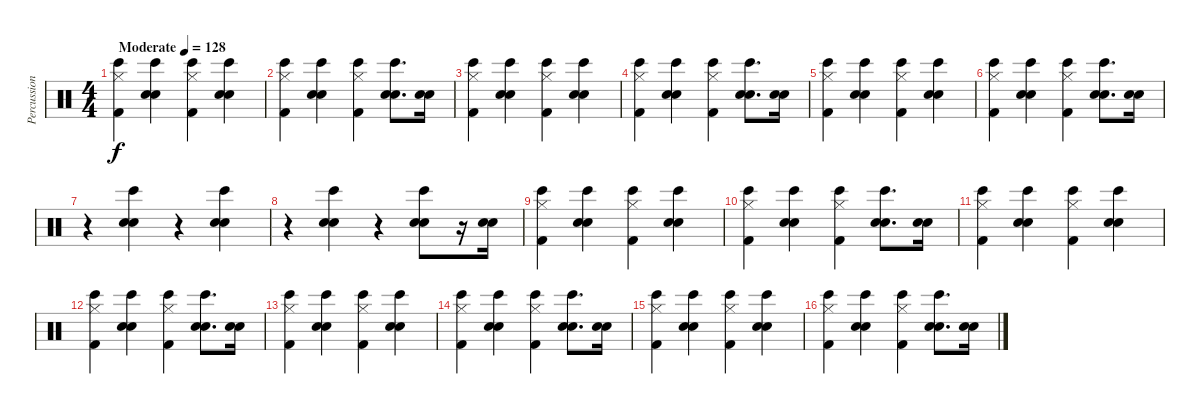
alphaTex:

\track ("Percussion" "Percussion") {instrument percussion}
\staff {score}
\articulation defaults
\ts (4 4)
\tempo (128 "Moderate")
\clef neutral
\ks c
("Hi-Hat (closed)" "Bongo High (hit)" "Kick (hit) 2").4{dy f} ("Bongo High (hit)" "Hand Clap (hit)" "Electric Snare (hit)").4 ("Hi-Hat (closed)" "Bongo High (hit)" "Kick (hit) 2").4 ("Bongo High (hit)" "Hand Clap (hit)" "Electric Snare (hit)").4 |
("Hi-Hat (closed)" "Bongo High (hit)" "Kick (hit) 2").4 ("Bongo High (hit)" "Hand Clap (hit)" "Electric Snare (hit)").4 ("Hi-Hat (closed)" "Bongo High (hit)" "Kick (hit) 2").4 ("Bongo High (hit)" "Hand Clap (hit)" "Electric Snare (hit)").8{d} ("Hand Clap (hit)" "Electric Snare (hit)").16 |
("Hi-Hat (closed)" "Bongo High (hit)" "Kick (hit) 2").4 ("Bongo High (hit)" "Hand Clap (hit)" "Electric Snare (hit)").4 ("Hi-Hat (closed)" "Bongo High (hit)" "Kick (hit) 2").4 ("Bongo High (hit)" "Hand Clap (hit)" "Electric Snare (hit)").4 |
("Hi-Hat (closed)" "Bongo High (hit)" "Kick (hit) 2").4 ("Bongo High (hit)" "Hand Clap (hit)" "Electric Snare (hit)").4 ("Hi-Hat (closed)" "Bongo High (hit)" "Kick (hit) 2").4 ("Bongo High (hit)" "Hand Clap (hit)" "Electric Snare (hit)").8{d} ("Hand Clap (hit)" "Electric Snare (hit)").16 |
("Hi-Hat (closed)" "Bongo High (hit)" "Kick (hit) 2").4 ("Bongo High (hit)" "Hand Clap (hit)" "Electric Snare (hit)").4 ("Hi-Hat (closed)" "Bongo High (hit)" "Kick (hit) 2").4 ("Bongo High (hit)" "Hand Clap (hit)" "Electric Snare (hit)").4 |
("Hi-Hat (closed)" "Bongo High (hit)" "Kick (hit) 2").4 ("Bongo High (hit)" "Hand Clap (hit)" "Electric Snare (hit)").4 ("Hi-Hat (closed)" "Bongo High (hit)" "Kick (hit) 2").4 ("Bongo High (hit)" "Hand Clap (hit)" "Electric Snare (hit)").8{d} ("Hand Clap (hit)" "Electric Snare (hit)").16 |
r.4 ("Bongo High (hit)" "Hand Clap (hit)" "Electric Snare (hit)").4 r.4 ("Bongo High (hit)" "Hand Clap (hit)" "Electric Snare (hit)").4 |
r.4 ("Bongo High (hit)" "Hand Clap (hit)" "Electric Snare (hit)").4 r.4 ("Bongo High (hit)" "Hand Clap (hit)" "Electric Snare (hit)").8 r.16 ("Hand Clap (hit)" "Electric Snare (hit)").16 |
("Hi-Hat (closed)" "Bongo High (hit)" "Kick (hit) 2").4 ("Bongo High (hit)" "Hand Clap (hit)" "Electric Snare (hit)").4 ("Hi-Hat (closed)" "Bongo High (hit)" "Kick (hit) 2").4 ("Bongo High (hit)" "Hand Clap (hit)" "Electric Snare (hit)").4 |
("Hi-Hat (closed)" "Bongo High (hit)" "Kick (hit) 2").4 ("Bongo High (hit)" "Hand Clap (hit)" "Electric Snare (hit)").4 ("Hi-Hat (closed)" "Bongo High (hit)" "Kick (hit) 2").4 ("Bongo High (hit)" "Hand Clap (hit)" "Electric Snare (hit)").8{d} ("Hand Clap (hit)" "Electric Snare (hit)").16 |
("Hi-Hat (closed)" "Bongo High (hit)" "Kick (hit) 2").4 ("Bongo High (hit)" "Hand Clap (hit)" "Electric Snare (hit)").4 ("Hi-Hat (closed)" "Bongo High (hit)" "Kick (hit) 2").4 ("Bongo High (hit)" "Hand Clap (hit)" "Electric Snare (hit)").4 |
("Hi-Hat (closed)" "Bongo High (hit)" "Kick (hit) 2").4 ("Bongo High (hit)" "Hand Clap (hit)" "Electric Snare (hit)").4 ("Hi-Hat (closed)" "Bongo High (hit)" "Kick (hit) 2").4 ("Bongo High (hit)" "Hand Clap (hit)" "Electric Snare (hit)").8{d} ("Hand Clap (hit)" "Electric Snare (hit)").16 |
("Hi-Hat (closed)" "Bongo High (hit)" "Kick (hit) 2").4 ("Bongo High (hit)" "Hand Clap (hit)" "Electric Snare (hit)").4 ("Hi-Hat (closed)" "Bongo High (hit)" "Kick (hit) 2").4 ("Bongo High (hit)" "Hand Clap (hit)" "Electric Snare (hit)").4 |
("Hi-Hat (closed)" "Bongo High (hit)" "Kick (hit) 2").4 ("Bongo High (hit)" "Hand Clap (hit)" "Electric Snare (hit)").4 ("Hi-Hat (closed)" "Bongo High (hit)" "Kick (hit) 2").4 ("Bongo High (hit)" "Hand Clap (hit)" "Electric Snare (hit)").8{d} ("Hand Clap (hit)" "Electric Snare (hit)").16 |
("Hi-Hat (closed)" "Bongo High (hit)" "Kick (hit) 2").4 ("Bongo High (hit)" "Hand Clap (hit)" "Electric Snare (hit)").4 ("Hi-Hat (closed)" "Bongo High (hit)" "Kick (hit) 2").4 ("Bongo High (hit)" "Hand Clap (hit)" "Electric Snare (hit)").4 |
("Hi-Hat (closed)" "Bongo High (hit)" "Kick (hit) 2").4 ("Bongo High (hit)" "Hand Clap (hit)" "Electric Snare (hit)").4 ("Hi-Hat (closed)" "Bongo High (hit)" "Kick (hit) 2").4 ("Bongo High (hit)" "Hand Clap (hit)" "Electric Snare (hit)").8{d} ("Hand Clap (hit)" "Electric Snare (hit)").16
